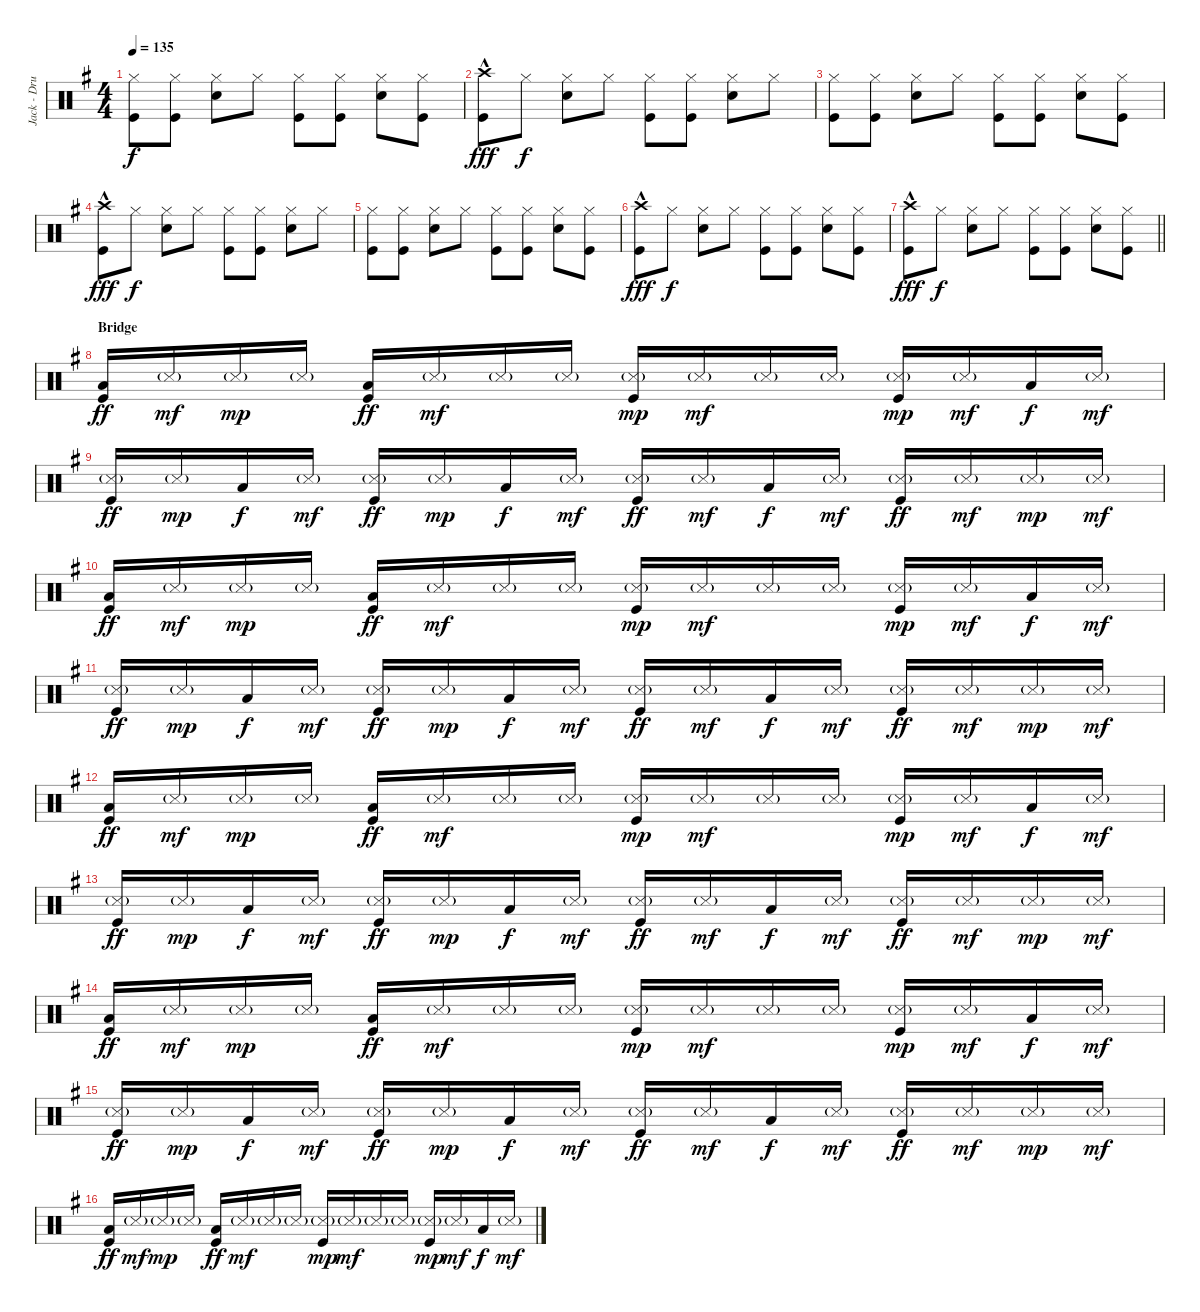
\track ("Jack - Drums" "Jack - Dru") {instrument percussion}
\staff {score}
\articulation defaults
\ts (4 4)
\tempo 135
\clef neutral
\ks g
("Hi-Hat (closed)" "Kick (hit)").8{dy f} ("Hi-Hat (closed)" "Kick (hit)").8 ("Hi-Hat (closed)" "Snare (hit) 2").8 "Hi-Hat (closed)".8 ("Hi-Hat (closed)" "Kick (hit)").8 ("Hi-Hat (closed)" "Kick (hit)").8 ("Hi-Hat (closed)" "Snare (hit) 2").8 ("Hi-Hat (closed)" "Kick (hit)").8 |
("Crash high (hit)"{hac} "Kick (hit)").8{dy fff} "Hi-Hat (closed)".8{dy f} ("Hi-Hat (closed)" "Snare (hit) 2").8 "Hi-Hat (closed)".8 ("Hi-Hat (closed)" "Kick (hit)").8 ("Hi-Hat (closed)" "Kick (hit)").8 ("Hi-Hat (closed)" "Snare (hit) 2").8 "Hi-Hat (closed)".8 |
("Hi-Hat (closed)" "Kick (hit)").8 ("Hi-Hat (closed)" "Kick (hit)").8 ("Hi-Hat (closed)" "Snare (hit) 2").8 "Hi-Hat (closed)".8 ("Hi-Hat (closed)" "Kick (hit)").8 ("Hi-Hat (closed)" "Kick (hit)").8 ("Hi-Hat (closed)" "Snare (hit) 2").8 ("Hi-Hat (closed)" "Kick (hit)").8 |
("Crash high (hit)"{hac} "Kick (hit)").8{dy fff} "Hi-Hat (closed)".8{dy f} ("Hi-Hat (closed)" "Snare (hit) 2").8 "Hi-Hat (closed)".8 ("Hi-Hat (closed)" "Kick (hit)").8 ("Hi-Hat (closed)" "Kick (hit)").8 ("Hi-Hat (closed)" "Snare (hit) 2").8 "Hi-Hat (closed)".8 |
("Hi-Hat (closed)" "Kick (hit)").8 ("Hi-Hat (closed)" "Kick (hit)").8 ("Hi-Hat (closed)" "Snare (hit) 2").8 "Hi-Hat (closed)".8 ("Hi-Hat (closed)" "Kick (hit)").8 ("Hi-Hat (closed)" "Kick (hit)").8 ("Hi-Hat (closed)" "Snare (hit) 2").8 ("Hi-Hat (closed)" "Kick (hit)").8 |
("Crash high (hit)"{hac} "Kick (hit)").8{dy fff} "Hi-Hat (closed)".8{dy f} ("Hi-Hat (closed)" "Snare (hit) 2").8 "Hi-Hat (closed)".8 ("Hi-Hat (closed)" "Kick (hit)").8 ("Hi-Hat (closed)" "Kick (hit)").8 ("Hi-Hat (closed)" "Snare (hit) 2").8 ("Hi-Hat (closed)" "Kick (hit)").8 |
\barLineRight lightlight
("Crash high (hit)"{hac} "Kick (hit)").8{dy fff} "Hi-Hat (closed)".8{dy f} ("Hi-Hat (closed)" "Snare (hit) 2").8 "Hi-Hat (closed)".8 ("Hi-Hat (closed)" "Kick (hit)").8 ("Hi-Hat (closed)" "Kick (hit)").8 ("Hi-Hat (closed)" "Snare (hit) 2").8 ("Hi-Hat (closed)" "Kick (hit)").8 |
\section ("" "Bridge")
("Low Tom (hit)" "Kick (hit)").16{dy ff} "Snare (side stick) 3"{g}.16{dy mf} "Snare (side stick) 3"{g}.16{dy mp} "Snare (side stick) 3"{g}.16 ("Low Tom (hit)" "Kick (hit)").16{dy ff} "Snare (side stick) 3"{g}.16{dy mf} "Snare (side stick) 3"{g}.16 "Snare (side stick) 3"{g}.16 ("Snare (side stick) 3"{g} "Kick (hit)").16{dy mp} "Snare (side stick) 3"{g}.16{dy mf} "Snare (side stick) 3"{g}.16 "Snare (side stick) 3"{g}.16 ("Snare (side stick) 3"{g} "Kick (hit)").16{dy mp} "Snare (side stick) 3"{g}.16{dy mf} "Low Tom (hit)".16{dy f} "Snare (side stick) 3"{g}.16{dy mf} |
("Snare (side stick) 3"{g} "Kick (hit)").16{dy ff} "Snare (side stick) 3"{g}.16{dy mp} "Low Tom (hit)".16{dy f} "Snare (side stick) 3"{g}.16{dy mf} ("Snare (side stick) 3"{g} "Kick (hit)").16{dy ff} "Snare (side stick) 3"{g}.16{dy mp} "Low Tom (hit)".16{dy f} "Snare (side stick) 3"{g}.16{dy mf} ("Snare (side stick) 3"{g} "Kick (hit)").16{dy ff} "Snare (side stick) 3"{g}.16{dy mf} "Low Tom (hit)".16{dy f} "Snare (side stick) 3"{g}.16{dy mf} ("Snare (side stick) 3"{g} "Kick (hit)").16{dy ff} "Snare (side stick) 3"{g}.16{dy mf} "Snare (side stick) 3"{g}.16{dy mp} "Snare (side stick) 3"{g}.16{dy mf} |
("Low Tom (hit)" "Kick (hit)").16{dy ff} "Snare (side stick) 3"{g}.16{dy mf} "Snare (side stick) 3"{g}.16{dy mp} "Snare (side stick) 3"{g}.16 ("Low Tom (hit)" "Kick (hit)").16{dy ff} "Snare (side stick) 3"{g}.16{dy mf} "Snare (side stick) 3"{g}.16 "Snare (side stick) 3"{g}.16 ("Snare (side stick) 3"{g} "Kick (hit)").16{dy mp} "Snare (side stick) 3"{g}.16{dy mf} "Snare (side stick) 3"{g}.16 "Snare (side stick) 3"{g}.16 ("Snare (side stick) 3"{g} "Kick (hit)").16{dy mp} "Snare (side stick) 3"{g}.16{dy mf} "Low Tom (hit)".16{dy f} "Snare (side stick) 3"{g}.16{dy mf} |
("Snare (side stick) 3"{g} "Kick (hit)").16{dy ff} "Snare (side stick) 3"{g}.16{dy mp} "Low Tom (hit)".16{dy f} "Snare (side stick) 3"{g}.16{dy mf} ("Snare (side stick) 3"{g} "Kick (hit)").16{dy ff} "Snare (side stick) 3"{g}.16{dy mp} "Low Tom (hit)".16{dy f} "Snare (side stick) 3"{g}.16{dy mf} ("Snare (side stick) 3"{g} "Kick (hit)").16{dy ff} "Snare (side stick) 3"{g}.16{dy mf} "Low Tom (hit)".16{dy f} "Snare (side stick) 3"{g}.16{dy mf} ("Snare (side stick) 3"{g} "Kick (hit)").16{dy ff} "Snare (side stick) 3"{g}.16{dy mf} "Snare (side stick) 3"{g}.16{dy mp} "Snare (side stick) 3"{g}.16{dy mf} |
("Low Tom (hit)" "Kick (hit)").16{dy ff} "Snare (side stick) 3"{g}.16{dy mf} "Snare (side stick) 3"{g}.16{dy mp} "Snare (side stick) 3"{g}.16 ("Low Tom (hit)" "Kick (hit)").16{dy ff} "Snare (side stick) 3"{g}.16{dy mf} "Snare (side stick) 3"{g}.16 "Snare (side stick) 3"{g}.16 ("Snare (side stick) 3"{g} "Kick (hit)").16{dy mp} "Snare (side stick) 3"{g}.16{dy mf} "Snare (side stick) 3"{g}.16 "Snare (side stick) 3"{g}.16 ("Snare (side stick) 3"{g} "Kick (hit)").16{dy mp} "Snare (side stick) 3"{g}.16{dy mf} "Low Tom (hit)".16{dy f} "Snare (side stick) 3"{g}.16{dy mf} |
("Snare (side stick) 3"{g} "Kick (hit)").16{dy ff} "Snare (side stick) 3"{g}.16{dy mp} "Low Tom (hit)".16{dy f} "Snare (side stick) 3"{g}.16{dy mf} ("Snare (side stick) 3"{g} "Kick (hit)").16{dy ff} "Snare (side stick) 3"{g}.16{dy mp} "Low Tom (hit)".16{dy f} "Snare (side stick) 3"{g}.16{dy mf} ("Snare (side stick) 3"{g} "Kick (hit)").16{dy ff} "Snare (side stick) 3"{g}.16{dy mf} "Low Tom (hit)".16{dy f} "Snare (side stick) 3"{g}.16{dy mf} ("Snare (side stick) 3"{g} "Kick (hit)").16{dy ff} "Snare (side stick) 3"{g}.16{dy mf} "Snare (side stick) 3"{g}.16{dy mp} "Snare (side stick) 3"{g}.16{dy mf} |
("Low Tom (hit)" "Kick (hit)").16{dy ff} "Snare (side stick) 3"{g}.16{dy mf} "Snare (side stick) 3"{g}.16{dy mp} "Snare (side stick) 3"{g}.16 ("Low Tom (hit)" "Kick (hit)").16{dy ff} "Snare (side stick) 3"{g}.16{dy mf} "Snare (side stick) 3"{g}.16 "Snare (side stick) 3"{g}.16 ("Snare (side stick) 3"{g} "Kick (hit)").16{dy mp} "Snare (side stick) 3"{g}.16{dy mf} "Snare (side stick) 3"{g}.16 "Snare (side stick) 3"{g}.16 ("Snare (side stick) 3"{g} "Kick (hit)").16{dy mp} "Snare (side stick) 3"{g}.16{dy mf} "Low Tom (hit)".16{dy f} "Snare (side stick) 3"{g}.16{dy mf} |
("Snare (side stick) 3"{g} "Kick (hit)").16{dy ff} "Snare (side stick) 3"{g}.16{dy mp} "Low Tom (hit)".16{dy f} "Snare (side stick) 3"{g}.16{dy mf} ("Snare (side stick) 3"{g} "Kick (hit)").16{dy ff} "Snare (side stick) 3"{g}.16{dy mp} "Low Tom (hit)".16{dy f} "Snare (side stick) 3"{g}.16{dy mf} ("Snare (side stick) 3"{g} "Kick (hit)").16{dy ff} "Snare (side stick) 3"{g}.16{dy mf} "Low Tom (hit)".16{dy f} "Snare (side stick) 3"{g}.16{dy mf} ("Snare (side stick) 3"{g} "Kick (hit)").16{dy ff} "Snare (side stick) 3"{g}.16{dy mf} "Snare (side stick) 3"{g}.16{dy mp} "Snare (side stick) 3"{g}.16{dy mf} |
("Low Tom (hit)" "Kick (hit)").16{dy ff} "Snare (side stick) 3"{g}.16{dy mf} "Snare (side stick) 3"{g}.16{dy mp} "Snare (side stick) 3"{g}.16 ("Low Tom (hit)" "Kick (hit)").16{dy ff} "Snare (side stick) 3"{g}.16{dy mf} "Snare (side stick) 3"{g}.16 "Snare (side stick) 3"{g}.16 ("Snare (side stick) 3"{g} "Kick (hit)").16{dy mp} "Snare (side stick) 3"{g}.16{dy mf} "Snare (side stick) 3"{g}.16 "Snare (side stick) 3"{g}.16 ("Snare (side stick) 3"{g} "Kick (hit)").16{dy mp} "Snare (side stick) 3"{g}.16{dy mf} "Low Tom (hit)".16{dy f} "Snare (side stick) 3"{g}.16{dy mf}
